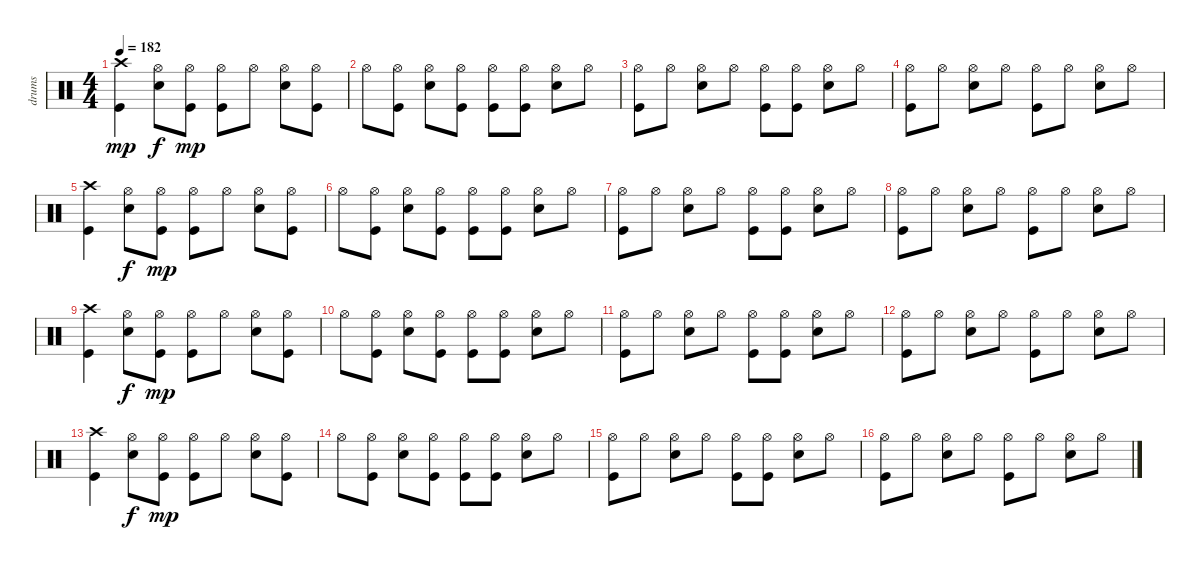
\track ("drums" "drums") {instrument percussion}
\staff {score}
\articulation defaults
\ts (4 4)
\tempo 182
\clef neutral
\ks c
("Kick (hit)" "Crash high (hit)").4{dy mp} ("Snare (hit) 2" "Hi-Hat (open)").8{dy f} ("Kick (hit)" "Hi-Hat (open)").8{dy mp} ("Kick (hit)" "Hi-Hat (open)").8 "Hi-Hat (open)".8 ("Snare (hit) 2" "Hi-Hat (open)").8 ("Kick (hit)" "Hi-Hat (open)").8 |
"Hi-Hat (open)".8 ("Kick (hit)" "Hi-Hat (open)").8 ("Snare (hit) 2" "Hi-Hat (open)").8 ("Kick (hit)" "Hi-Hat (open)").8 ("Kick (hit)" "Hi-Hat (open)").8 ("Kick (hit)" "Hi-Hat (open)").8 ("Snare (hit) 2" "Hi-Hat (open)").8 "Hi-Hat (open)".8 |
("Kick (hit)" "Hi-Hat (open)").8 "Hi-Hat (open)".8 ("Snare (hit) 2" "Hi-Hat (open)").8 "Hi-Hat (open)".8 ("Kick (hit)" "Hi-Hat (open)").8 ("Kick (hit)" "Hi-Hat (open)").8 ("Snare (hit) 2" "Hi-Hat (open)").8 "Hi-Hat (open)".8 |
("Kick (hit)" "Hi-Hat (open)").8 "Hi-Hat (open)".8 ("Snare (hit) 2" "Hi-Hat (open)").8 "Hi-Hat (open)".8 ("Kick (hit)" "Hi-Hat (open)").8 "Hi-Hat (open)".8 ("Snare (hit) 2" "Hi-Hat (open)").8 "Hi-Hat (open)".8 |
("Kick (hit)" "Crash high (hit)").4 ("Snare (hit) 2" "Hi-Hat (open)").8{dy f} ("Kick (hit)" "Hi-Hat (open)").8{dy mp} ("Kick (hit)" "Hi-Hat (open)").8 "Hi-Hat (open)".8 ("Snare (hit) 2" "Hi-Hat (open)").8 ("Kick (hit)" "Hi-Hat (open)").8 |
"Hi-Hat (open)".8 ("Kick (hit)" "Hi-Hat (open)").8 ("Snare (hit) 2" "Hi-Hat (open)").8 ("Kick (hit)" "Hi-Hat (open)").8 ("Kick (hit)" "Hi-Hat (open)").8 ("Kick (hit)" "Hi-Hat (open)").8 ("Snare (hit) 2" "Hi-Hat (open)").8 "Hi-Hat (open)".8 |
("Kick (hit)" "Hi-Hat (open)").8 "Hi-Hat (open)".8 ("Snare (hit) 2" "Hi-Hat (open)").8 "Hi-Hat (open)".8 ("Kick (hit)" "Hi-Hat (open)").8 ("Kick (hit)" "Hi-Hat (open)").8 ("Snare (hit) 2" "Hi-Hat (open)").8 "Hi-Hat (open)".8 |
("Kick (hit)" "Hi-Hat (open)").8 "Hi-Hat (open)".8 ("Snare (hit) 2" "Hi-Hat (open)").8 "Hi-Hat (open)".8 ("Kick (hit)" "Hi-Hat (open)").8 "Hi-Hat (open)".8 ("Snare (hit) 2" "Hi-Hat (open)").8 "Hi-Hat (open)".8 |
("Kick (hit)" "Crash high (hit)").4 ("Snare (hit) 2" "Hi-Hat (open)").8{dy f} ("Kick (hit)" "Hi-Hat (open)").8{dy mp} ("Kick (hit)" "Hi-Hat (open)").8 "Hi-Hat (open)".8 ("Snare (hit) 2" "Hi-Hat (open)").8 ("Kick (hit)" "Hi-Hat (open)").8 |
"Hi-Hat (open)".8 ("Kick (hit)" "Hi-Hat (open)").8 ("Snare (hit) 2" "Hi-Hat (open)").8 ("Kick (hit)" "Hi-Hat (open)").8 ("Kick (hit)" "Hi-Hat (open)").8 ("Kick (hit)" "Hi-Hat (open)").8 ("Snare (hit) 2" "Hi-Hat (open)").8 "Hi-Hat (open)".8 |
("Kick (hit)" "Hi-Hat (open)").8 "Hi-Hat (open)".8 ("Snare (hit) 2" "Hi-Hat (open)").8 "Hi-Hat (open)".8 ("Kick (hit)" "Hi-Hat (open)").8 ("Kick (hit)" "Hi-Hat (open)").8 ("Snare (hit) 2" "Hi-Hat (open)").8 "Hi-Hat (open)".8 |
("Kick (hit)" "Hi-Hat (open)").8 "Hi-Hat (open)".8 ("Snare (hit) 2" "Hi-Hat (open)").8 "Hi-Hat (open)".8 ("Kick (hit)" "Hi-Hat (open)").8 "Hi-Hat (open)".8 ("Snare (hit) 2" "Hi-Hat (open)").8 "Hi-Hat (open)".8 |
("Kick (hit)" "Crash high (hit)").4 ("Snare (hit) 2" "Hi-Hat (open)").8{dy f} ("Kick (hit)" "Hi-Hat (open)").8{dy mp} ("Kick (hit)" "Hi-Hat (open)").8 "Hi-Hat (open)".8 ("Snare (hit) 2" "Hi-Hat (open)").8 ("Kick (hit)" "Hi-Hat (open)").8 |
"Hi-Hat (open)".8 ("Kick (hit)" "Hi-Hat (open)").8 ("Snare (hit) 2" "Hi-Hat (open)").8 ("Kick (hit)" "Hi-Hat (open)").8 ("Kick (hit)" "Hi-Hat (open)").8 ("Kick (hit)" "Hi-Hat (open)").8 ("Snare (hit) 2" "Hi-Hat (open)").8 "Hi-Hat (open)".8 |
("Kick (hit)" "Hi-Hat (open)").8 "Hi-Hat (open)".8 ("Snare (hit) 2" "Hi-Hat (open)").8 "Hi-Hat (open)".8 ("Kick (hit)" "Hi-Hat (open)").8 ("Kick (hit)" "Hi-Hat (open)").8 ("Snare (hit) 2" "Hi-Hat (open)").8 "Hi-Hat (open)".8 |
("Kick (hit)" "Hi-Hat (open)").8 "Hi-Hat (open)".8 ("Snare (hit) 2" "Hi-Hat (open)").8 "Hi-Hat (open)".8 ("Kick (hit)" "Hi-Hat (open)").8 "Hi-Hat (open)".8 ("Snare (hit) 2" "Hi-Hat (open)").8 "Hi-Hat (open)".8
